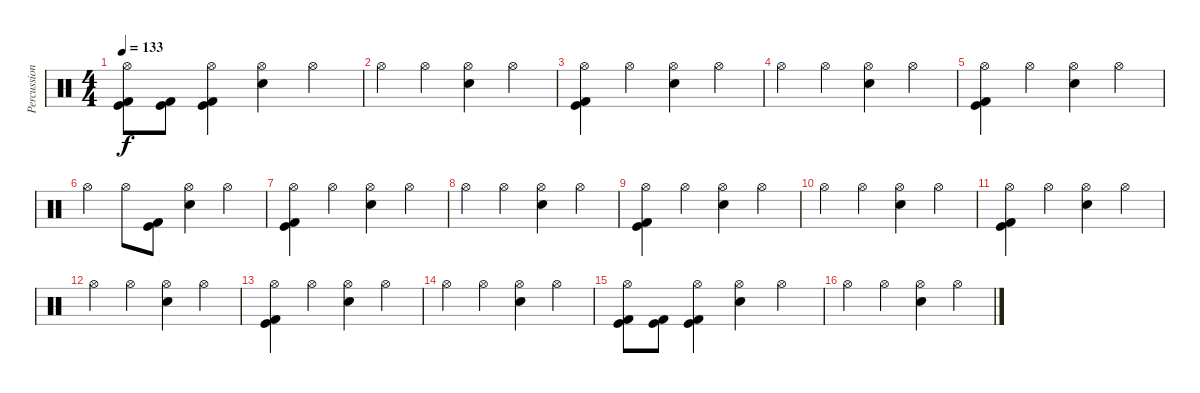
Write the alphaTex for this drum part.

\track ("Percussion" "Percussion") {instrument percussion}
\staff {score}
\articulation defaults
\ts (4 4)
\tempo 133
\clef neutral
\ks c
("Hi-Hat (open)" "Kick (hit)" "Kick (hit) 2").8{dy f} ("Kick (hit)" "Kick (hit) 2").8 ("Hi-Hat (open)" "Kick (hit)" "Kick (hit) 2").4 ("Hi-Hat (open)" "Electric Snare (hit)").4 "Hi-Hat (open)".4 |
"Hi-Hat (open)".4 "Hi-Hat (open)".4 ("Hi-Hat (open)" "Electric Snare (hit)").4 "Hi-Hat (open)".4 |
("Hi-Hat (open)" "Kick (hit)" "Kick (hit) 2").4 "Hi-Hat (open)".4 ("Hi-Hat (open)" "Electric Snare (hit)").4 "Hi-Hat (open)".4 |
"Hi-Hat (open)".4 "Hi-Hat (open)".4 ("Hi-Hat (open)" "Electric Snare (hit)").4 "Hi-Hat (open)".4 |
("Hi-Hat (open)" "Kick (hit)" "Kick (hit) 2").4 "Hi-Hat (open)".4 ("Hi-Hat (open)" "Electric Snare (hit)").4 "Hi-Hat (open)".4 |
"Hi-Hat (open)".4 "Hi-Hat (open)".8 ("Kick (hit)" "Kick (hit) 2").8 ("Hi-Hat (open)" "Electric Snare (hit)").4 "Hi-Hat (open)".4 |
("Hi-Hat (open)" "Kick (hit)" "Kick (hit) 2").4 "Hi-Hat (open)".4 ("Hi-Hat (open)" "Electric Snare (hit)").4 "Hi-Hat (open)".4 |
"Hi-Hat (open)".4 "Hi-Hat (open)".4 ("Hi-Hat (open)" "Electric Snare (hit)").4 "Hi-Hat (open)".4 |
("Hi-Hat (open)" "Kick (hit)" "Kick (hit) 2").4 "Hi-Hat (open)".4 ("Hi-Hat (open)" "Electric Snare (hit)").4 "Hi-Hat (open)".4 |
"Hi-Hat (open)".4 "Hi-Hat (open)".4 ("Hi-Hat (open)" "Electric Snare (hit)").4 "Hi-Hat (open)".4 |
("Hi-Hat (open)" "Kick (hit)" "Kick (hit) 2").4 "Hi-Hat (open)".4 ("Hi-Hat (open)" "Electric Snare (hit)").4 "Hi-Hat (open)".4 |
"Hi-Hat (open)".4 "Hi-Hat (open)".4 ("Hi-Hat (open)" "Electric Snare (hit)").4 "Hi-Hat (open)".4 |
("Hi-Hat (open)" "Kick (hit)" "Kick (hit) 2").4 "Hi-Hat (open)".4 ("Hi-Hat (open)" "Electric Snare (hit)").4 "Hi-Hat (open)".4 |
"Hi-Hat (open)".4 "Hi-Hat (open)".4 ("Hi-Hat (open)" "Electric Snare (hit)").4 "Hi-Hat (open)".4 |
("Hi-Hat (open)" "Kick (hit)" "Kick (hit) 2").8 ("Kick (hit)" "Kick (hit) 2").8 ("Hi-Hat (open)" "Kick (hit)" "Kick (hit) 2").4 ("Hi-Hat (open)" "Electric Snare (hit)").4 "Hi-Hat (open)".4 |
"Hi-Hat (open)".4 "Hi-Hat (open)".4 ("Hi-Hat (open)" "Electric Snare (hit)").4 "Hi-Hat (open)".4
